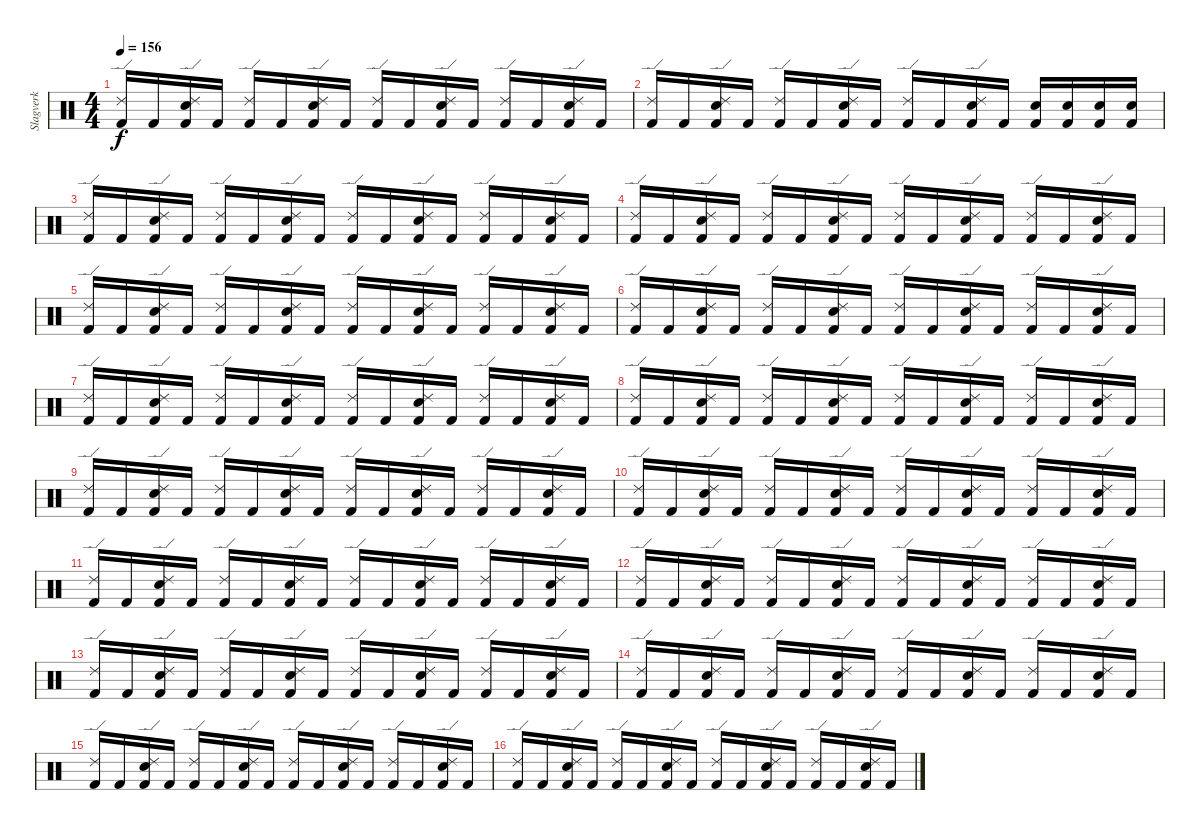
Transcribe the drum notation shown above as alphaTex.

\track ("Slagverk" "Slagverk") {instrument percussion}
\staff {score}
\articulation defaults
\ts (4 4)
\tempo 156
\clef neutral
\ks c
("Ride (edge) 2" "Kick (hit) 2").16{dy f} "Kick (hit) 2".16 ("Snare (hit) 2" "Ride (edge) 2" "Kick (hit) 2").16 "Kick (hit) 2".16 ("Ride (edge) 2" "Kick (hit) 2").16 "Kick (hit) 2".16 ("Snare (hit) 2" "Ride (edge) 2" "Kick (hit) 2").16 "Kick (hit) 2".16 ("Ride (edge) 2" "Kick (hit) 2").16 "Kick (hit) 2".16 ("Snare (hit) 2" "Ride (edge) 2" "Kick (hit) 2").16 "Kick (hit) 2".16 ("Ride (edge) 2" "Kick (hit) 2").16 "Kick (hit) 2".16 ("Snare (hit) 2" "Ride (edge) 2" "Kick (hit) 2").16 "Kick (hit) 2".16 |
("Ride (edge) 2" "Kick (hit) 2").16 "Kick (hit) 2".16 ("Snare (hit) 2" "Ride (edge) 2" "Kick (hit) 2").16 "Kick (hit) 2".16 ("Ride (edge) 2" "Kick (hit) 2").16 "Kick (hit) 2".16 ("Snare (hit) 2" "Ride (edge) 2" "Kick (hit) 2").16 "Kick (hit) 2".16 ("Ride (edge) 2" "Kick (hit) 2").16 "Kick (hit) 2".16 ("Ride (edge) 2" "Snare (hit) 2" "Kick (hit) 2").16 "Kick (hit) 2".16 ("Snare (hit) 2" "Kick (hit) 2").16 ("Snare (hit) 2" "Kick (hit) 2").16 ("Snare (hit) 2" "Kick (hit) 2").16 ("Snare (hit) 2" "Kick (hit) 2").16 |
("Ride (edge) 2" "Kick (hit) 2").16 "Kick (hit) 2".16 ("Snare (hit) 2" "Ride (edge) 2" "Kick (hit) 2").16 "Kick (hit) 2".16 ("Ride (edge) 2" "Kick (hit) 2").16 "Kick (hit) 2".16 ("Snare (hit) 2" "Ride (edge) 2" "Kick (hit) 2").16 "Kick (hit) 2".16 ("Ride (edge) 2" "Kick (hit) 2").16 "Kick (hit) 2".16 ("Snare (hit) 2" "Ride (edge) 2" "Kick (hit) 2").16 "Kick (hit) 2".16 ("Ride (edge) 2" "Kick (hit) 2").16 "Kick (hit) 2".16 ("Snare (hit) 2" "Ride (edge) 2" "Kick (hit) 2").16 "Kick (hit) 2".16 |
("Ride (edge) 2" "Kick (hit) 2").16 "Kick (hit) 2".16 ("Snare (hit) 2" "Ride (edge) 2" "Kick (hit) 2").16 "Kick (hit) 2".16 ("Ride (edge) 2" "Kick (hit) 2").16 "Kick (hit) 2".16 ("Snare (hit) 2" "Ride (edge) 2" "Kick (hit) 2").16 "Kick (hit) 2".16 ("Ride (edge) 2" "Kick (hit) 2").16 "Kick (hit) 2".16 ("Snare (hit) 2" "Ride (edge) 2" "Kick (hit) 2").16 "Kick (hit) 2".16 ("Ride (edge) 2" "Kick (hit) 2").16 "Kick (hit) 2".16 ("Snare (hit) 2" "Ride (edge) 2" "Kick (hit) 2").16 "Kick (hit) 2".16 |
("Ride (edge) 2" "Kick (hit) 2").16 "Kick (hit) 2".16 ("Snare (hit) 2" "Ride (edge) 2" "Kick (hit) 2").16 "Kick (hit) 2".16 ("Ride (edge) 2" "Kick (hit) 2").16 "Kick (hit) 2".16 ("Snare (hit) 2" "Ride (edge) 2" "Kick (hit) 2").16 "Kick (hit) 2".16 ("Ride (edge) 2" "Kick (hit) 2").16 "Kick (hit) 2".16 ("Snare (hit) 2" "Ride (edge) 2" "Kick (hit) 2").16 "Kick (hit) 2".16 ("Ride (edge) 2" "Kick (hit) 2").16 "Kick (hit) 2".16 ("Snare (hit) 2" "Ride (edge) 2" "Kick (hit) 2").16 "Kick (hit) 2".16 |
("Ride (edge) 2" "Kick (hit) 2").16 "Kick (hit) 2".16 ("Snare (hit) 2" "Ride (edge) 2" "Kick (hit) 2").16 "Kick (hit) 2".16 ("Ride (edge) 2" "Kick (hit) 2").16 "Kick (hit) 2".16 ("Snare (hit) 2" "Ride (edge) 2" "Kick (hit) 2").16 "Kick (hit) 2".16 ("Ride (edge) 2" "Kick (hit) 2").16 "Kick (hit) 2".16 ("Snare (hit) 2" "Ride (edge) 2" "Kick (hit) 2").16 "Kick (hit) 2".16 ("Ride (edge) 2" "Kick (hit) 2").16 "Kick (hit) 2".16 ("Snare (hit) 2" "Ride (edge) 2" "Kick (hit) 2").16 "Kick (hit) 2".16 |
("Ride (edge) 2" "Kick (hit) 2").16 "Kick (hit) 2".16 ("Snare (hit) 2" "Ride (edge) 2" "Kick (hit) 2").16 "Kick (hit) 2".16 ("Ride (edge) 2" "Kick (hit) 2").16 "Kick (hit) 2".16 ("Snare (hit) 2" "Ride (edge) 2" "Kick (hit) 2").16 "Kick (hit) 2".16 ("Ride (edge) 2" "Kick (hit) 2").16 "Kick (hit) 2".16 ("Snare (hit) 2" "Ride (edge) 2" "Kick (hit) 2").16 "Kick (hit) 2".16 ("Ride (edge) 2" "Kick (hit) 2").16 "Kick (hit) 2".16 ("Snare (hit) 2" "Ride (edge) 2" "Kick (hit) 2").16 "Kick (hit) 2".16 |
("Ride (edge) 2" "Kick (hit) 2").16 "Kick (hit) 2".16 ("Snare (hit) 2" "Ride (edge) 2" "Kick (hit) 2").16 "Kick (hit) 2".16 ("Ride (edge) 2" "Kick (hit) 2").16 "Kick (hit) 2".16 ("Snare (hit) 2" "Ride (edge) 2" "Kick (hit) 2").16 "Kick (hit) 2".16 ("Ride (edge) 2" "Kick (hit) 2").16 "Kick (hit) 2".16 ("Snare (hit) 2" "Ride (edge) 2" "Kick (hit) 2").16 "Kick (hit) 2".16 ("Ride (edge) 2" "Kick (hit) 2").16 "Kick (hit) 2".16 ("Snare (hit) 2" "Ride (edge) 2" "Kick (hit) 2").16 "Kick (hit) 2".16 |
("Ride (edge) 2" "Kick (hit) 2").16 "Kick (hit) 2".16 ("Snare (hit) 2" "Ride (edge) 2" "Kick (hit) 2").16 "Kick (hit) 2".16 ("Ride (edge) 2" "Kick (hit) 2").16 "Kick (hit) 2".16 ("Snare (hit) 2" "Ride (edge) 2" "Kick (hit) 2").16 "Kick (hit) 2".16 ("Ride (edge) 2" "Kick (hit) 2").16 "Kick (hit) 2".16 ("Snare (hit) 2" "Ride (edge) 2" "Kick (hit) 2").16 "Kick (hit) 2".16 ("Ride (edge) 2" "Kick (hit) 2").16 "Kick (hit) 2".16 ("Snare (hit) 2" "Ride (edge) 2" "Kick (hit) 2").16 "Kick (hit) 2".16 |
("Ride (edge) 2" "Kick (hit) 2").16 "Kick (hit) 2".16 ("Snare (hit) 2" "Ride (edge) 2" "Kick (hit) 2").16 "Kick (hit) 2".16 ("Ride (edge) 2" "Kick (hit) 2").16 "Kick (hit) 2".16 ("Snare (hit) 2" "Ride (edge) 2" "Kick (hit) 2").16 "Kick (hit) 2".16 ("Ride (edge) 2" "Kick (hit) 2").16 "Kick (hit) 2".16 ("Snare (hit) 2" "Ride (edge) 2" "Kick (hit) 2").16 "Kick (hit) 2".16 ("Ride (edge) 2" "Kick (hit) 2").16 "Kick (hit) 2".16 ("Snare (hit) 2" "Ride (edge) 2" "Kick (hit) 2").16 "Kick (hit) 2".16 |
("Ride (edge) 2" "Kick (hit) 2").16 "Kick (hit) 2".16 ("Snare (hit) 2" "Ride (edge) 2" "Kick (hit) 2").16 "Kick (hit) 2".16 ("Ride (edge) 2" "Kick (hit) 2").16 "Kick (hit) 2".16 ("Snare (hit) 2" "Ride (edge) 2" "Kick (hit) 2").16 "Kick (hit) 2".16 ("Ride (edge) 2" "Kick (hit) 2").16 "Kick (hit) 2".16 ("Snare (hit) 2" "Ride (edge) 2" "Kick (hit) 2").16 "Kick (hit) 2".16 ("Ride (edge) 2" "Kick (hit) 2").16 "Kick (hit) 2".16 ("Snare (hit) 2" "Ride (edge) 2" "Kick (hit) 2").16 "Kick (hit) 2".16 |
("Ride (edge) 2" "Kick (hit) 2").16 "Kick (hit) 2".16 ("Snare (hit) 2" "Ride (edge) 2" "Kick (hit) 2").16 "Kick (hit) 2".16 ("Ride (edge) 2" "Kick (hit) 2").16 "Kick (hit) 2".16 ("Snare (hit) 2" "Ride (edge) 2" "Kick (hit) 2").16 "Kick (hit) 2".16 ("Ride (edge) 2" "Kick (hit) 2").16 "Kick (hit) 2".16 ("Snare (hit) 2" "Ride (edge) 2" "Kick (hit) 2").16 "Kick (hit) 2".16 ("Ride (edge) 2" "Kick (hit) 2").16 "Kick (hit) 2".16 ("Snare (hit) 2" "Ride (edge) 2" "Kick (hit) 2").16 "Kick (hit) 2".16 |
("Ride (edge) 2" "Kick (hit) 2").16 "Kick (hit) 2".16 ("Snare (hit) 2" "Ride (edge) 2" "Kick (hit) 2").16 "Kick (hit) 2".16 ("Ride (edge) 2" "Kick (hit) 2").16 "Kick (hit) 2".16 ("Snare (hit) 2" "Ride (edge) 2" "Kick (hit) 2").16 "Kick (hit) 2".16 ("Ride (edge) 2" "Kick (hit) 2").16 "Kick (hit) 2".16 ("Snare (hit) 2" "Ride (edge) 2" "Kick (hit) 2").16 "Kick (hit) 2".16 ("Ride (edge) 2" "Kick (hit) 2").16 "Kick (hit) 2".16 ("Snare (hit) 2" "Ride (edge) 2" "Kick (hit) 2").16 "Kick (hit) 2".16 |
("Ride (edge) 2" "Kick (hit) 2").16 "Kick (hit) 2".16 ("Snare (hit) 2" "Ride (edge) 2" "Kick (hit) 2").16 "Kick (hit) 2".16 ("Ride (edge) 2" "Kick (hit) 2").16 "Kick (hit) 2".16 ("Snare (hit) 2" "Ride (edge) 2" "Kick (hit) 2").16 "Kick (hit) 2".16 ("Ride (edge) 2" "Kick (hit) 2").16 "Kick (hit) 2".16 ("Snare (hit) 2" "Ride (edge) 2" "Kick (hit) 2").16 "Kick (hit) 2".16 ("Ride (edge) 2" "Kick (hit) 2").16 "Kick (hit) 2".16 ("Snare (hit) 2" "Ride (edge) 2" "Kick (hit) 2").16 "Kick (hit) 2".16 |
("Ride (edge) 2" "Kick (hit) 2").16 "Kick (hit) 2".16 ("Snare (hit) 2" "Ride (edge) 2" "Kick (hit) 2").16 "Kick (hit) 2".16 ("Ride (edge) 2" "Kick (hit) 2").16 "Kick (hit) 2".16 ("Snare (hit) 2" "Ride (edge) 2" "Kick (hit) 2").16 "Kick (hit) 2".16 ("Ride (edge) 2" "Kick (hit) 2").16 "Kick (hit) 2".16 ("Snare (hit) 2" "Ride (edge) 2" "Kick (hit) 2").16 "Kick (hit) 2".16 ("Ride (edge) 2" "Kick (hit) 2").16 "Kick (hit) 2".16 ("Snare (hit) 2" "Ride (edge) 2" "Kick (hit) 2").16 "Kick (hit) 2".16 |
("Ride (edge) 2" "Kick (hit) 2").16 "Kick (hit) 2".16 ("Snare (hit) 2" "Ride (edge) 2" "Kick (hit) 2").16 "Kick (hit) 2".16 ("Ride (edge) 2" "Kick (hit) 2").16 "Kick (hit) 2".16 ("Snare (hit) 2" "Ride (edge) 2" "Kick (hit) 2").16 "Kick (hit) 2".16 ("Ride (edge) 2" "Kick (hit) 2").16 "Kick (hit) 2".16 ("Snare (hit) 2" "Ride (edge) 2" "Kick (hit) 2").16 "Kick (hit) 2".16 ("Ride (edge) 2" "Kick (hit) 2").16 "Kick (hit) 2".16 ("Snare (hit) 2" "Ride (edge) 2" "Kick (hit) 2").16 "Kick (hit) 2".16
